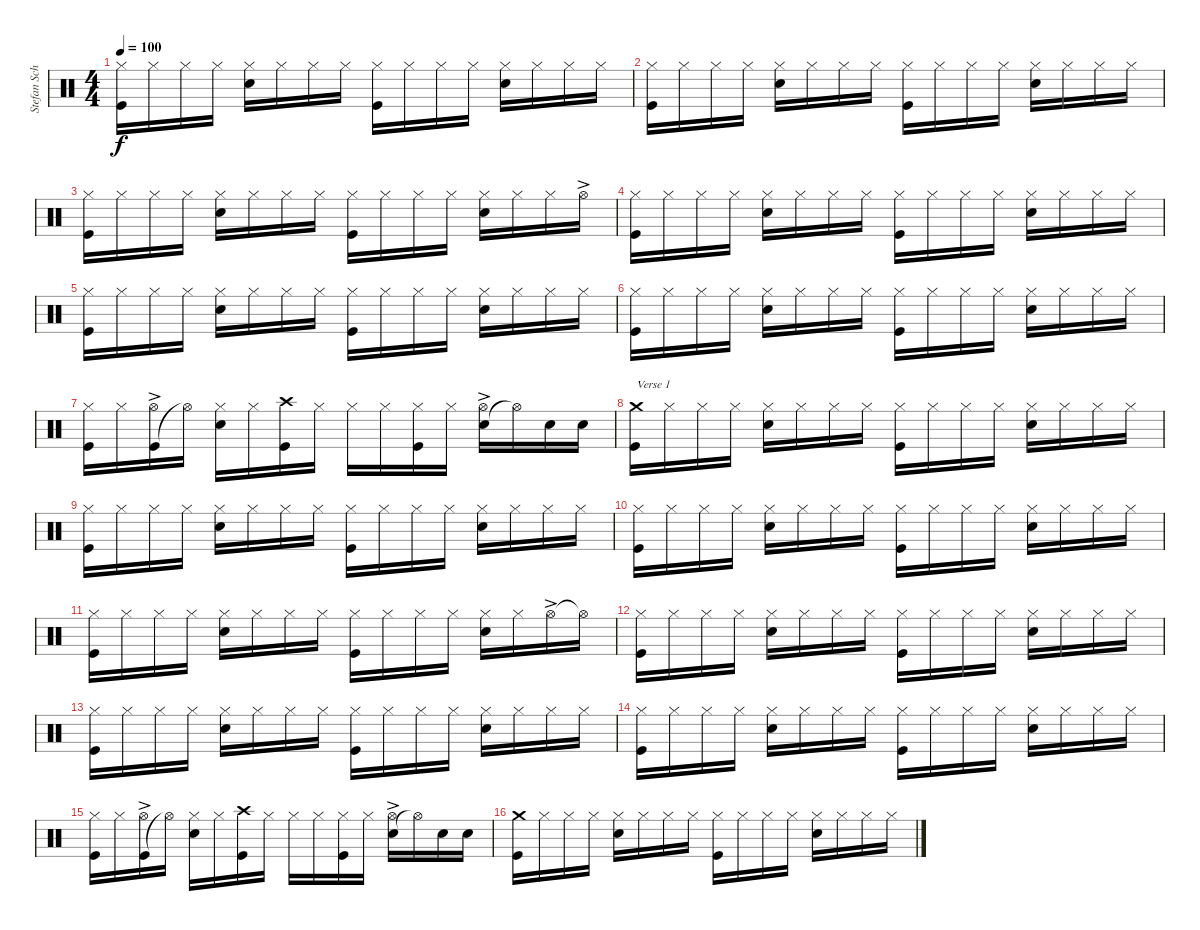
\track ("Stefan Schwarzmann" "Stefan Sch") {instrument percussion}
\staff {score}
\articulation defaults
\ts (4 4)
\tempo 100
\clef neutral
\ks c
("Kick (hit)" "Hi-Hat (closed)").16{dy f} "Hi-Hat (closed)".16 "Hi-Hat (closed)".16 "Hi-Hat (closed)".16 ("Snare (hit) 2" "Hi-Hat (closed)").16 "Hi-Hat (closed)".16 "Hi-Hat (closed)".16 "Hi-Hat (closed)".16 ("Kick (hit)" "Hi-Hat (closed)").16 "Hi-Hat (closed)".16 "Hi-Hat (closed)".16 "Hi-Hat (closed)".16 ("Snare (hit) 2" "Hi-Hat (closed)").16 "Hi-Hat (closed)".16 "Hi-Hat (closed)".16 "Hi-Hat (closed)".16 |
("Kick (hit)" "Hi-Hat (closed)").16 "Hi-Hat (closed)".16 "Hi-Hat (closed)".16 "Hi-Hat (closed)".16 ("Snare (hit) 2" "Hi-Hat (closed)").16 "Hi-Hat (closed)".16 "Hi-Hat (closed)".16 "Hi-Hat (closed)".16 ("Kick (hit)" "Hi-Hat (closed)").16 "Hi-Hat (closed)".16 "Hi-Hat (closed)".16 "Hi-Hat (closed)".16 ("Snare (hit) 2" "Hi-Hat (closed)").16 "Hi-Hat (closed)".16 "Hi-Hat (closed)".16 "Hi-Hat (closed)".16 |
("Kick (hit)" "Hi-Hat (closed)").16 "Hi-Hat (closed)".16 "Hi-Hat (closed)".16 "Hi-Hat (closed)".16 ("Snare (hit) 2" "Hi-Hat (closed)").16 "Hi-Hat (closed)".16 "Hi-Hat (closed)".16 "Hi-Hat (closed)".16 ("Kick (hit)" "Hi-Hat (closed)").16 "Hi-Hat (closed)".16 "Hi-Hat (closed)".16 "Hi-Hat (closed)".16 ("Snare (hit) 2" "Hi-Hat (closed)").16 "Hi-Hat (closed)".16 "Hi-Hat (closed)".16 "Hi-Hat (open)"{ac}.16 |
("Kick (hit)" "Hi-Hat (closed)").16 "Hi-Hat (closed)".16 "Hi-Hat (closed)".16 "Hi-Hat (closed)".16 ("Snare (hit) 2" "Hi-Hat (closed)").16 "Hi-Hat (closed)".16 "Hi-Hat (closed)".16 "Hi-Hat (closed)".16 ("Kick (hit)" "Hi-Hat (closed)").16 "Hi-Hat (closed)".16 "Hi-Hat (closed)".16 "Hi-Hat (closed)".16 ("Snare (hit) 2" "Hi-Hat (closed)").16 "Hi-Hat (closed)".16 "Hi-Hat (closed)".16 "Hi-Hat (closed)".16 |
("Kick (hit)" "Hi-Hat (closed)").16 "Hi-Hat (closed)".16 "Hi-Hat (closed)".16 "Hi-Hat (closed)".16 ("Snare (hit) 2" "Hi-Hat (closed)").16 "Hi-Hat (closed)".16 "Hi-Hat (closed)".16 "Hi-Hat (closed)".16 ("Kick (hit)" "Hi-Hat (closed)").16 "Hi-Hat (closed)".16 "Hi-Hat (closed)".16 "Hi-Hat (closed)".16 ("Snare (hit) 2" "Hi-Hat (closed)").16 "Hi-Hat (closed)".16 "Hi-Hat (closed)".16 "Hi-Hat (closed)".16 |
("Kick (hit)" "Hi-Hat (closed)").16 "Hi-Hat (closed)".16 "Hi-Hat (closed)".16 "Hi-Hat (closed)".16 ("Snare (hit) 2" "Hi-Hat (closed)").16 "Hi-Hat (closed)".16 "Hi-Hat (closed)".16 "Hi-Hat (closed)".16 ("Kick (hit)" "Hi-Hat (closed)").16 "Hi-Hat (closed)".16 "Hi-Hat (closed)".16 "Hi-Hat (closed)".16 ("Snare (hit) 2" "Hi-Hat (closed)").16 "Hi-Hat (closed)".16 "Hi-Hat (closed)".16 "Hi-Hat (closed)".16 |
("Kick (hit)" "Hi-Hat (closed)").16 "Hi-Hat (closed)".16 ("Kick (hit)" "Hi-Hat (open)"{ac}).16 "Hi-Hat (open)"{t}.16 ("Snare (hit) 2" "Hi-Hat (closed)").16 "Hi-Hat (closed)".16 ("Kick (hit)" "Crash high (hit)").16 "Hi-Hat (closed)".16 "Hi-Hat (closed)".16 "Hi-Hat (closed)".16 ("Hi-Hat (closed)" "Kick (hit)").16 "Hi-Hat (closed)".16 ("Snare (hit) 2" "Hi-Hat (open)"{ac}).16 "Hi-Hat (open)"{t}.16 "Snare (hit) 2".16 "Snare (hit) 2".16 |
("Kick (hit)" "Crash medium (hit)").16{txt "Verse 1"} "Hi-Hat (closed)".16 "Hi-Hat (closed)".16 "Hi-Hat (closed)".16 ("Snare (hit) 2" "Hi-Hat (closed)").16 "Hi-Hat (closed)".16 "Hi-Hat (closed)".16 "Hi-Hat (closed)".16 ("Kick (hit)" "Hi-Hat (closed)").16 "Hi-Hat (closed)".16 "Hi-Hat (closed)".16 "Hi-Hat (closed)".16 ("Snare (hit) 2" "Hi-Hat (closed)").16 "Hi-Hat (closed)".16 "Hi-Hat (closed)".16 "Hi-Hat (closed)".16 |
("Kick (hit)" "Hi-Hat (closed)").16 "Hi-Hat (closed)".16 "Hi-Hat (closed)".16 "Hi-Hat (closed)".16 ("Snare (hit) 2" "Hi-Hat (closed)").16 "Hi-Hat (closed)".16 "Hi-Hat (closed)".16 "Hi-Hat (closed)".16 ("Kick (hit)" "Hi-Hat (closed)").16 "Hi-Hat (closed)".16 "Hi-Hat (closed)".16 "Hi-Hat (closed)".16 ("Snare (hit) 2" "Hi-Hat (closed)").16 "Hi-Hat (closed)".16 "Hi-Hat (closed)".16 "Hi-Hat (closed)".16 |
("Kick (hit)" "Hi-Hat (closed)").16 "Hi-Hat (closed)".16 "Hi-Hat (closed)".16 "Hi-Hat (closed)".16 ("Snare (hit) 2" "Hi-Hat (closed)").16 "Hi-Hat (closed)".16 "Hi-Hat (closed)".16 "Hi-Hat (closed)".16 ("Kick (hit)" "Hi-Hat (closed)").16 "Hi-Hat (closed)".16 "Hi-Hat (closed)".16 "Hi-Hat (closed)".16 ("Snare (hit) 2" "Hi-Hat (closed)").16 "Hi-Hat (closed)".16 "Hi-Hat (closed)".16 "Hi-Hat (closed)".16 |
("Kick (hit)" "Hi-Hat (closed)").16 "Hi-Hat (closed)".16 "Hi-Hat (closed)".16 "Hi-Hat (closed)".16 ("Snare (hit) 2" "Hi-Hat (closed)").16 "Hi-Hat (closed)".16 "Hi-Hat (closed)".16 "Hi-Hat (closed)".16 ("Kick (hit)" "Hi-Hat (closed)").16 "Hi-Hat (closed)".16 "Hi-Hat (closed)".16 "Hi-Hat (closed)".16 ("Snare (hit) 2" "Hi-Hat (closed)").16 "Hi-Hat (closed)".16 "Hi-Hat (open)"{ac}.16 "Hi-Hat (open)"{t}.16 |
("Kick (hit)" "Hi-Hat (closed)").16 "Hi-Hat (closed)".16 "Hi-Hat (closed)".16 "Hi-Hat (closed)".16 ("Snare (hit) 2" "Hi-Hat (closed)").16 "Hi-Hat (closed)".16 "Hi-Hat (closed)".16 "Hi-Hat (closed)".16 ("Kick (hit)" "Hi-Hat (closed)").16 "Hi-Hat (closed)".16 "Hi-Hat (closed)".16 "Hi-Hat (closed)".16 ("Snare (hit) 2" "Hi-Hat (closed)").16 "Hi-Hat (closed)".16 "Hi-Hat (closed)".16 "Hi-Hat (closed)".16 |
("Kick (hit)" "Hi-Hat (closed)").16 "Hi-Hat (closed)".16 "Hi-Hat (closed)".16 "Hi-Hat (closed)".16 ("Snare (hit) 2" "Hi-Hat (closed)").16 "Hi-Hat (closed)".16 "Hi-Hat (closed)".16 "Hi-Hat (closed)".16 ("Kick (hit)" "Hi-Hat (closed)").16 "Hi-Hat (closed)".16 "Hi-Hat (closed)".16 "Hi-Hat (closed)".16 ("Snare (hit) 2" "Hi-Hat (closed)").16 "Hi-Hat (closed)".16 "Hi-Hat (closed)".16 "Hi-Hat (closed)".16 |
("Kick (hit)" "Hi-Hat (closed)").16 "Hi-Hat (closed)".16 "Hi-Hat (closed)".16 "Hi-Hat (closed)".16 ("Snare (hit) 2" "Hi-Hat (closed)").16 "Hi-Hat (closed)".16 "Hi-Hat (closed)".16 "Hi-Hat (closed)".16 ("Kick (hit)" "Hi-Hat (closed)").16 "Hi-Hat (closed)".16 "Hi-Hat (closed)".16 "Hi-Hat (closed)".16 ("Snare (hit) 2" "Hi-Hat (closed)").16 "Hi-Hat (closed)".16 "Hi-Hat (closed)".16 "Hi-Hat (closed)".16 |
("Kick (hit)" "Hi-Hat (closed)").16 "Hi-Hat (closed)".16 ("Kick (hit)" "Hi-Hat (open)"{ac}).16 "Hi-Hat (open)"{t}.16 ("Snare (hit) 2" "Hi-Hat (closed)").16 "Hi-Hat (closed)".16 ("Kick (hit)" "Crash high (hit)").16 "Hi-Hat (closed)".16 "Hi-Hat (closed)".16 "Hi-Hat (closed)".16 ("Hi-Hat (closed)" "Kick (hit)").16 "Hi-Hat (closed)".16 ("Snare (hit) 2" "Hi-Hat (open)"{ac}).16 "Hi-Hat (open)"{t}.16 "Snare (hit) 2".16 "Snare (hit) 2".16 |
("Kick (hit)" "Crash medium (hit)").16 "Hi-Hat (closed)".16 "Hi-Hat (closed)".16 "Hi-Hat (closed)".16 ("Snare (hit) 2" "Hi-Hat (closed)").16 "Hi-Hat (closed)".16 "Hi-Hat (closed)".16 "Hi-Hat (closed)".16 ("Kick (hit)" "Hi-Hat (closed)").16 "Hi-Hat (closed)".16 "Hi-Hat (closed)".16 "Hi-Hat (closed)".16 ("Snare (hit) 2" "Hi-Hat (closed)").16 "Hi-Hat (closed)".16 "Hi-Hat (closed)".16 "Hi-Hat (closed)".16
